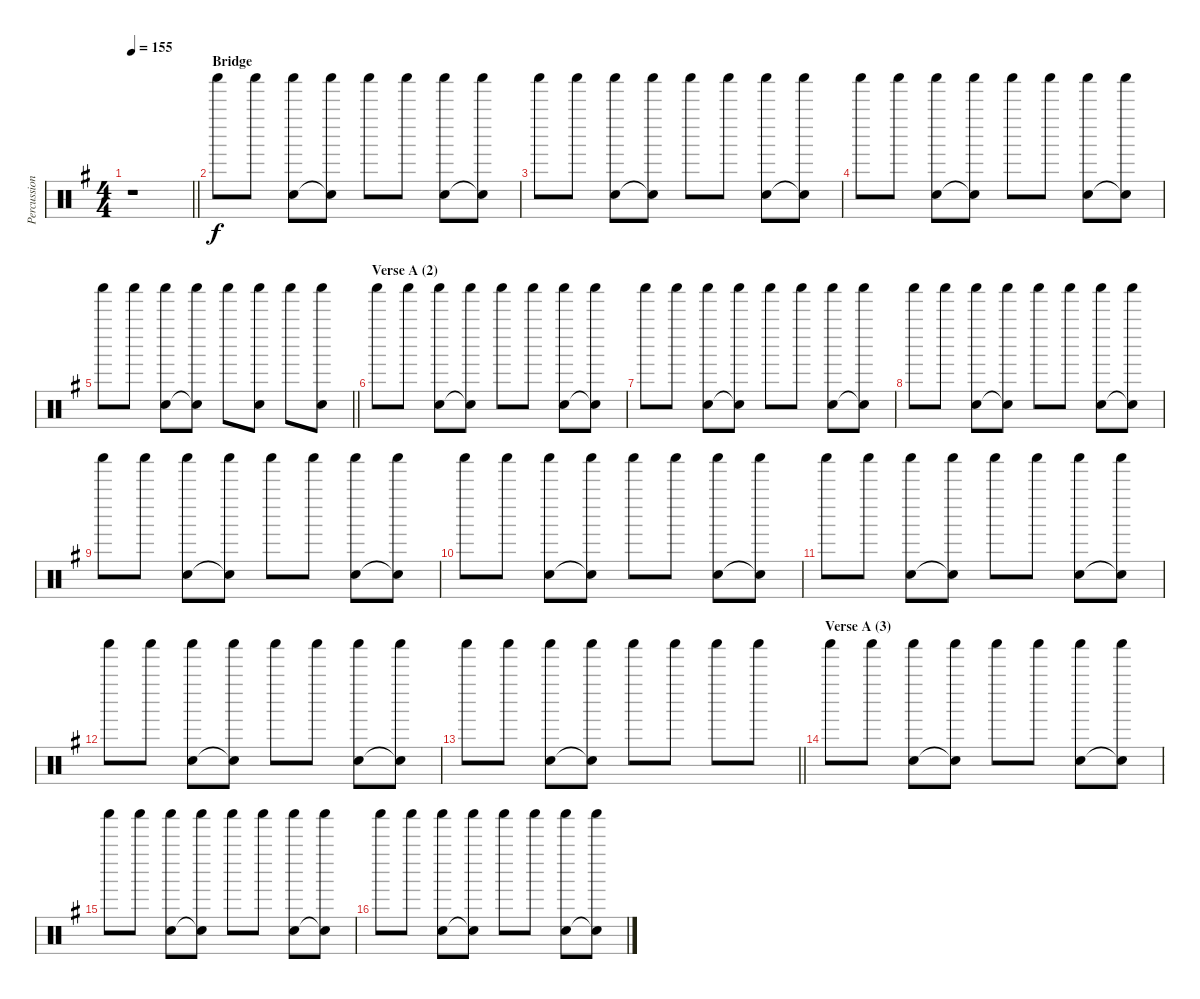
\track ("Percussion" "Percussion") {instrument percussion}
\staff {score}
\articulation defaults
\ts (4 4)
\tempo 155
\clef neutral
\barLineRight lightlight
\ks eminor
r.1{dy f} |
\section ("" "Bridge")
"Shaker (hit)".8 "Shaker (hit)".8 ("Hand Clap (hit)" "Shaker (hit)").8 ("Snare (hit)"{t} "Shaker (hit)").8 "Shaker (hit)".8 "Shaker (hit)".8 ("Hand Clap (hit)" "Shaker (hit)").8 ("Snare (hit)"{t} "Shaker (hit)").8 |
"Shaker (hit)".8 "Shaker (hit)".8 ("Hand Clap (hit)" "Shaker (hit)").8 ("Snare (hit)"{t} "Shaker (hit)").8 "Shaker (hit)".8 "Shaker (hit)".8 ("Hand Clap (hit)" "Shaker (hit)").8 ("Snare (hit)"{t} "Shaker (hit)").8 |
"Shaker (hit)".8 "Shaker (hit)".8 ("Hand Clap (hit)" "Shaker (hit)").8 ("Snare (hit)"{t} "Shaker (hit)").8 "Shaker (hit)".8 "Shaker (hit)".8 ("Hand Clap (hit)" "Shaker (hit)").8 ("Snare (hit)"{t} "Shaker (hit)").8 |
\barLineRight lightlight "Shaker (hit)".8 "Shaker (hit)".8
("Hand Clap (hit)" "Shaker (hit)").8 ("Snare (hit)"{t} "Shaker (hit)").8 "Shaker (hit)".8 ("Hand Clap (hit)" "Shaker (hit)").8 "Shaker (hit)".8 ("Hand Clap (hit)" "Shaker (hit)").8 |
\section ("" "Verse A (2)")
"Shaker (hit)".8 "Shaker (hit)".8 ("Hand Clap (hit)" "Shaker (hit)").8 ("Snare (hit)"{t} "Shaker (hit)").8 "Shaker (hit)".8 "Shaker (hit)".8 ("Hand Clap (hit)" "Shaker (hit)").8 ("Snare (hit)"{t} "Shaker (hit)").8 |
"Shaker (hit)".8 "Shaker (hit)".8 ("Hand Clap (hit)" "Shaker (hit)").8 ("Snare (hit)"{t} "Shaker (hit)").8 "Shaker (hit)".8 "Shaker (hit)".8 ("Hand Clap (hit)" "Shaker (hit)").8 ("Snare (hit)"{t} "Shaker (hit)").8 |
"Shaker (hit)".8 "Shaker (hit)".8 ("Hand Clap (hit)" "Shaker (hit)").8 ("Snare (hit)"{t} "Shaker (hit)").8 "Shaker (hit)".8 "Shaker (hit)".8 ("Hand Clap (hit)" "Shaker (hit)").8 ("Snare (hit)"{t} "Shaker (hit)").8 |
"Shaker (hit)".8 "Shaker (hit)".8 ("Hand Clap (hit)" "Shaker (hit)").8 ("Snare (hit)"{t} "Shaker (hit)").8 "Shaker (hit)".8 "Shaker (hit)".8 ("Hand Clap (hit)" "Shaker (hit)").8 ("Snare (hit)"{t} "Shaker (hit)").8 |
"Shaker (hit)".8 "Shaker (hit)".8 ("Hand Clap (hit)" "Shaker (hit)").8 ("Snare (hit)"{t} "Shaker (hit)").8 "Shaker (hit)".8 "Shaker (hit)".8 ("Hand Clap (hit)" "Shaker (hit)").8 ("Snare (hit)"{t} "Shaker (hit)").8 |
"Shaker (hit)".8 "Shaker (hit)".8 ("Hand Clap (hit)" "Shaker (hit)").8 ("Snare (hit)"{t} "Shaker (hit)").8 "Shaker (hit)".8 "Shaker (hit)".8 ("Hand Clap (hit)" "Shaker (hit)").8 ("Snare (hit)"{t} "Shaker (hit)").8 |
"Shaker (hit)".8 "Shaker (hit)".8 ("Hand Clap (hit)" "Shaker (hit)").8 ("Snare (hit)"{t} "Shaker (hit)").8 "Shaker (hit)".8 "Shaker (hit)".8 ("Hand Clap (hit)" "Shaker (hit)").8 ("Snare (hit)"{t} "Shaker (hit)").8 |
\barLineRight lightlight "Shaker (hit)".8 "Shaker (hit)".8
("Hand Clap (hit)" "Shaker (hit)").8 ("Snare (hit)"{t} "Shaker (hit)").8 "Shaker (hit)".8 "Shaker (hit)".8 "Shaker (hit)".8 "Shaker (hit)".8 |
\section ("" "Verse A (3)")
"Shaker (hit)".8 "Shaker (hit)".8 ("Hand Clap (hit)" "Shaker (hit)").8 ("Snare (hit)"{t} "Shaker (hit)").8 "Shaker (hit)".8 "Shaker (hit)".8 ("Hand Clap (hit)" "Shaker (hit)").8 ("Snare (hit)"{t} "Shaker (hit)").8 |
"Shaker (hit)".8 "Shaker (hit)".8 ("Hand Clap (hit)" "Shaker (hit)").8 ("Snare (hit)"{t} "Shaker (hit)").8 "Shaker (hit)".8 "Shaker (hit)".8 ("Hand Clap (hit)" "Shaker (hit)").8 ("Snare (hit)"{t} "Shaker (hit)").8 |
"Shaker (hit)".8 "Shaker (hit)".8 ("Hand Clap (hit)" "Shaker (hit)").8 ("Snare (hit)"{t} "Shaker (hit)").8 "Shaker (hit)".8 "Shaker (hit)".8 ("Hand Clap (hit)" "Shaker (hit)").8 ("Snare (hit)"{t} "Shaker (hit)").8
